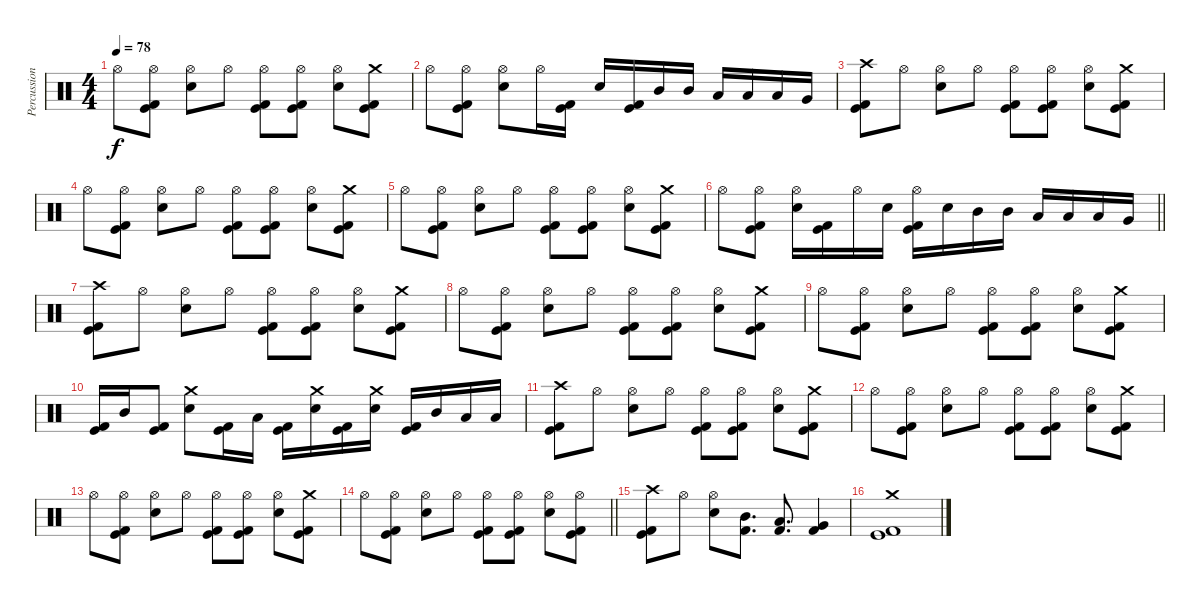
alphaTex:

\track ("Percussion" "Percussion") {instrument percussion}
\staff {score}
\articulation defaults
\ts (4 4)
\tempo 78
\clef neutral
\ks c "Hi-Hat (open)".8{dy f}
("Hi-Hat (open)" "Kick (hit)" "Kick (hit) 2").8 ("Hi-Hat (open)" "Electric Snare (hit)").8 "Hi-Hat (open)".8 ("Hi-Hat (open)" "Kick (hit)" "Kick (hit) 2").8 ("Hi-Hat (open)" "Kick (hit)" "Kick (hit) 2").8 ("Hi-Hat (open)" "Electric Snare (hit)").8 ("Crash medium (hit)" "Kick (hit)" "Kick (hit) 2").8 |
"Hi-Hat (open)".8 ("Hi-Hat (open)" "Kick (hit)" "Kick (hit) 2").8 ("Hi-Hat (open)" "Electric Snare (hit)").8 "Hi-Hat (open)".16 ("Kick (hit)" "Kick (hit) 2").16 "Electric Snare (hit)".16 ("Kick (hit)" "Kick (hit) 2").16 "Mid Tom (hit)".16 "Mid Tom (hit)".16 "Low Tom (hit)".16 "Low Tom (hit)".16 "Low Tom (hit)".16 "Very Low Tom (hit)".16 |
("Crash high (hit)" "Kick (hit)" "Kick (hit) 2").8 "Hi-Hat (open)".8 ("Hi-Hat (open)" "Electric Snare (hit)").8 "Hi-Hat (open)".8 ("Hi-Hat (open)" "Kick (hit)" "Kick (hit) 2").8 ("Hi-Hat (open)" "Kick (hit)" "Kick (hit) 2").8 ("Hi-Hat (open)" "Electric Snare (hit)").8 ("Crash medium (hit)" "Kick (hit)" "Kick (hit) 2").8 |
"Hi-Hat (open)".8 ("Hi-Hat (open)" "Kick (hit)" "Kick (hit) 2").8 ("Hi-Hat (open)" "Electric Snare (hit)").8 "Hi-Hat (open)".8 ("Hi-Hat (open)" "Kick (hit)" "Kick (hit) 2").8 ("Hi-Hat (open)" "Kick (hit)" "Kick (hit) 2").8 ("Hi-Hat (open)" "Electric Snare (hit)").8 ("Crash medium (hit)" "Kick (hit)" "Kick (hit) 2").8 |
"Hi-Hat (open)".8 ("Hi-Hat (open)" "Kick (hit)" "Kick (hit) 2").8 ("Hi-Hat (open)" "Electric Snare (hit)").8 "Hi-Hat (open)".8 ("Hi-Hat (open)" "Kick (hit)" "Kick (hit) 2").8 ("Hi-Hat (open)" "Kick (hit)" "Kick (hit) 2").8 ("Hi-Hat (open)" "Electric Snare (hit)").8 ("Crash medium (hit)" "Kick (hit)" "Kick (hit) 2").8 |
\barLineRight lightlight "Hi-Hat (open)".8
("Hi-Hat (open)" "Kick (hit)" "Kick (hit) 2").8 ("Hi-Hat (open)" "Electric Snare (hit)").16 ("Kick (hit)" "Kick (hit) 2").16 "Hi-Hat (open)".16 "Electric Snare (hit)".16 ("Hi-Hat (open)" "Kick (hit)" "Kick (hit) 2").16 "Electric Snare (hit)".16 "Mid Tom (hit)".16 "Mid Tom (hit)".16 "Low Tom (hit)".16 "Low Tom (hit)".16 "Low Tom (hit)".16 "Very Low Tom (hit)".16 |
\section ("" "")
("Crash high (hit)" "Kick (hit)" "Kick (hit) 2").8 "Hi-Hat (open)".8 ("Hi-Hat (open)" "Electric Snare (hit)").8 "Hi-Hat (open)".8 ("Hi-Hat (open)" "Kick (hit)" "Kick (hit) 2").8 ("Hi-Hat (open)" "Kick (hit)" "Kick (hit) 2").8 ("Hi-Hat (open)" "Electric Snare (hit)").8 ("Crash medium (hit)" "Kick (hit)" "Kick (hit) 2").8 |
"Hi-Hat (open)".8 ("Hi-Hat (open)" "Kick (hit)" "Kick (hit) 2").8 ("Hi-Hat (open)" "Electric Snare (hit)").8 "Hi-Hat (open)".8 ("Hi-Hat (open)" "Kick (hit)" "Kick (hit) 2").8 ("Hi-Hat (open)" "Kick (hit)" "Kick (hit) 2").8 ("Hi-Hat (open)" "Electric Snare (hit)").8 ("Crash medium (hit)" "Kick (hit)" "Kick (hit) 2").8 |
"Hi-Hat (open)".8 ("Hi-Hat (open)" "Kick (hit)" "Kick (hit) 2").8 ("Hi-Hat (open)" "Electric Snare (hit)").8 "Hi-Hat (open)".8 ("Hi-Hat (open)" "Kick (hit)" "Kick (hit) 2").8 ("Hi-Hat (open)" "Kick (hit)" "Kick (hit) 2").8 ("Hi-Hat (open)" "Electric Snare (hit)").8 ("Crash medium (hit)" "Kick (hit)" "Kick (hit) 2").8 |
("Kick (hit)" "Kick (hit) 2").16 "Mid Tom (hit)".16 ("Kick (hit)" "Kick (hit) 2").8 ("Crash medium (hit)" "Electric Snare (hit)").8 ("Kick (hit)" "Kick (hit) 2").16 "Low Tom (hit)".16 ("Kick (hit)" "Kick (hit) 2").16 ("Crash medium (hit)" "Electric Snare (hit)").16 ("Kick (hit)" "Kick (hit) 2").16 ("Crash medium (hit)" "Electric Snare (hit)").16 ("Kick (hit)" "Kick (hit) 2").16 "Mid Tom (hit)".16 "Low Tom (hit)".16 "Low Tom (hit)".16 |
("Crash high (hit)" "Kick (hit)" "Kick (hit) 2").8 "Hi-Hat (open)".8 ("Hi-Hat (open)" "Electric Snare (hit)").8 "Hi-Hat (open)".8 ("Hi-Hat (open)" "Kick (hit)" "Kick (hit) 2").8 ("Hi-Hat (open)" "Kick (hit)" "Kick (hit) 2").8 ("Hi-Hat (open)" "Electric Snare (hit)").8 ("Crash medium (hit)" "Kick (hit)" "Kick (hit) 2").8 |
"Hi-Hat (open)".8 ("Hi-Hat (open)" "Kick (hit)" "Kick (hit) 2").8 ("Hi-Hat (open)" "Electric Snare (hit)").8 "Hi-Hat (open)".8 ("Hi-Hat (open)" "Kick (hit)" "Kick (hit) 2").8 ("Hi-Hat (open)" "Kick (hit)" "Kick (hit) 2").8 ("Hi-Hat (open)" "Electric Snare (hit)").8 ("Crash medium (hit)" "Kick (hit)" "Kick (hit) 2").8 |
"Hi-Hat (open)".8 ("Hi-Hat (open)" "Kick (hit)" "Kick (hit) 2").8 ("Hi-Hat (open)" "Electric Snare (hit)").8 "Hi-Hat (open)".8 ("Hi-Hat (open)" "Kick (hit)" "Kick (hit) 2").8 ("Hi-Hat (open)" "Kick (hit)" "Kick (hit) 2").8 ("Hi-Hat (open)" "Electric Snare (hit)").8 ("Crash medium (hit)" "Kick (hit)" "Kick (hit) 2").8 |
\barLineRight lightlight "Hi-Hat (open)".8
("Hi-Hat (open)" "Kick (hit)" "Kick (hit) 2").8 ("Hi-Hat (open)" "Electric Snare (hit)").8 "Hi-Hat (open)".8 ("Hi-Hat (open)" "Kick (hit)" "Kick (hit) 2").8 ("Hi-Hat (open)" "Kick (hit)" "Kick (hit) 2").8 ("Hi-Hat (open)" "Electric Snare (hit)").8 ("Hi-Hat (open)" "Kick (hit)" "Kick (hit) 2").8 |
\section ("" "")
("Crash high (hit)" "Kick (hit)" "Kick (hit) 2").8 "Hi-Hat (open)".8 ("Hi-Hat (open)" "Electric Snare (hit)").8 ("Mid Tom (hit)" "Kick (hit) 2").8{d} ("Low Tom (hit)" "Kick (hit) 2").8{d} ("Very Low Tom (hit)" "Kick (hit) 2").4 |
("Crash medium (hit)" "Kick (hit)" "Kick (hit) 2").1
